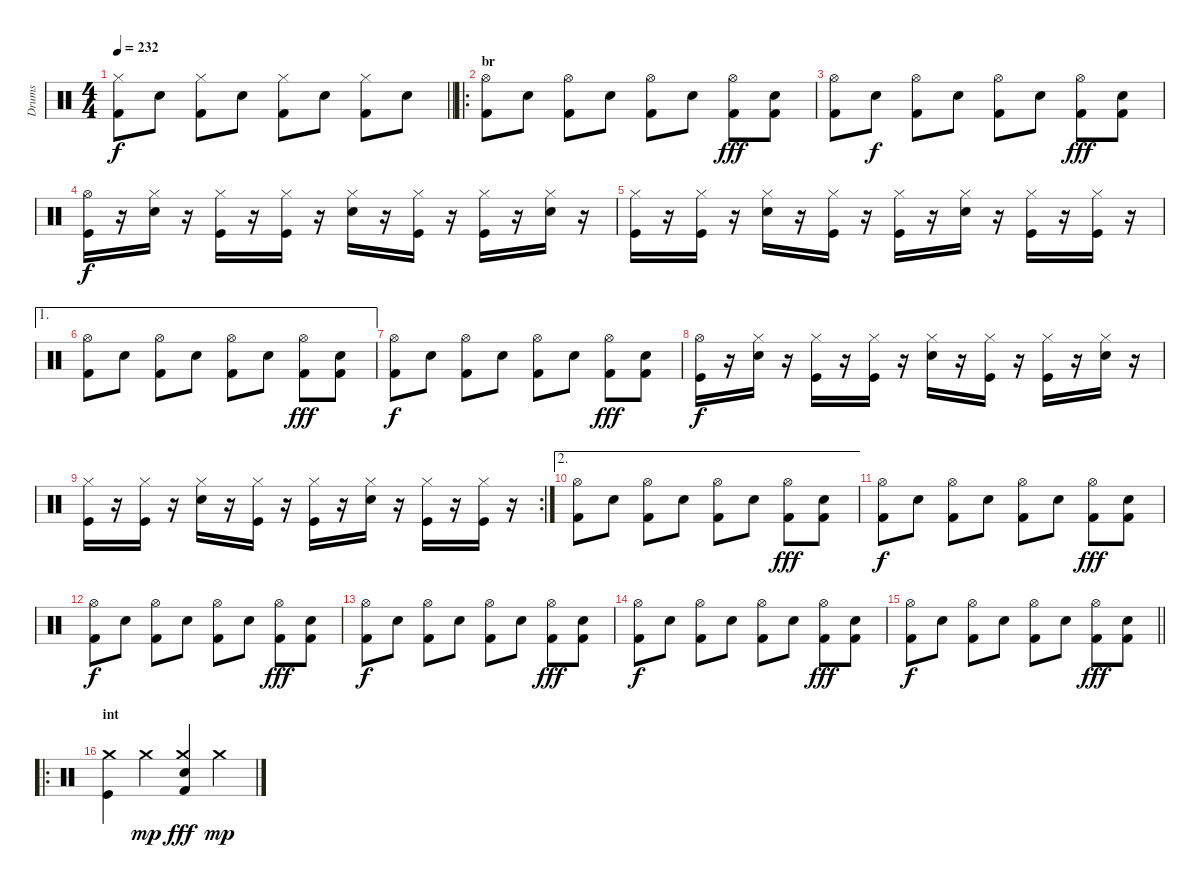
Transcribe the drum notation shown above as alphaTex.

\track ("Drums" "Drums") {instrument percussion}
\staff {score}
\articulation defaults
\ts (4 4)
\tempo 232
\clef neutral
\barLineRight lightlight
\ks c
("Hi-Hat (closed)" "Kick (hit) 2").8{dy f} "Electric Snare (hit)".8 ("Hi-Hat (closed)" "Kick (hit) 2").8 "Electric Snare (hit)".8 ("Hi-Hat (closed)" "Kick (hit) 2").8 "Electric Snare (hit)".8 ("Hi-Hat (closed)" "Kick (hit) 2").8 "Electric Snare (hit)".8 |
\ro
\section ("" "br")
("Hi-Hat (open)" "Kick (hit) 2").8 "Electric Snare (hit)".8 ("Hi-Hat (open)" "Kick (hit) 2").8 "Electric Snare (hit)".8 ("Hi-Hat (open)" "Kick (hit) 2").8 "Electric Snare (hit)".8 ("Hi-Hat (open)" "Kick (hit) 2").8{dy fff} ("Electric Snare (hit)" "Kick (hit) 2").8 |
("Hi-Hat (open)" "Kick (hit) 2").8 "Electric Snare (hit)".8{dy f} ("Hi-Hat (open)" "Kick (hit) 2").8 "Electric Snare (hit)".8 ("Hi-Hat (open)" "Kick (hit) 2").8 "Electric Snare (hit)".8 ("Hi-Hat (open)" "Kick (hit) 2").8{dy fff} ("Electric Snare (hit)" "Kick (hit) 2").8 |
("Hi-Hat (open)" "Kick (hit)").16{dy f} r.16 ("Hi-Hat (closed)" "Electric Snare (hit)").16 r.16 ("Hi-Hat (closed)" "Kick (hit)").16 r.16 ("Hi-Hat (closed)" "Kick (hit)").16 r.16 ("Hi-Hat (closed)" "Electric Snare (hit)").16 r.16 ("Hi-Hat (closed)" "Kick (hit)").16 r.16 ("Hi-Hat (closed)" "Kick (hit)").16 r.16 ("Hi-Hat (closed)" "Electric Snare (hit)").16 r.16 |
("Hi-Hat (closed)" "Kick (hit)").16 r.16 ("Hi-Hat (closed)" "Kick (hit)").16 r.16 ("Hi-Hat (closed)" "Electric Snare (hit)").16 r.16 ("Hi-Hat (closed)" "Kick (hit)").16 r.16 ("Hi-Hat (closed)" "Kick (hit)").16 r.16 ("Hi-Hat (closed)" "Electric Snare (hit)").16 r.16 ("Hi-Hat (closed)" "Kick (hit)").16 r.16 ("Hi-Hat (closed)" "Kick (hit)").16 r.16 |
\ae 1
("Hi-Hat (open)" "Kick (hit) 2").8 "Electric Snare (hit)".8 ("Hi-Hat (open)" "Kick (hit) 2").8 "Electric Snare (hit)".8 ("Hi-Hat (open)" "Kick (hit) 2").8 "Electric Snare (hit)".8 ("Hi-Hat (open)" "Kick (hit) 2").8{dy fff} ("Electric Snare (hit)" "Kick (hit) 2").8 |
("Hi-Hat (open)" "Kick (hit) 2").8{dy f} "Electric Snare (hit)".8 ("Hi-Hat (open)" "Kick (hit) 2").8 "Electric Snare (hit)".8 ("Hi-Hat (open)" "Kick (hit) 2").8 "Electric Snare (hit)".8 ("Hi-Hat (open)" "Kick (hit) 2").8{dy fff} ("Electric Snare (hit)" "Kick (hit) 2").8 |
("Hi-Hat (open)" "Kick (hit)").16{dy f} r.16 ("Hi-Hat (closed)" "Electric Snare (hit)").16 r.16 ("Hi-Hat (closed)" "Kick (hit)").16 r.16 ("Hi-Hat (closed)" "Kick (hit)").16 r.16 ("Hi-Hat (closed)" "Electric Snare (hit)").16 r.16 ("Hi-Hat (closed)" "Kick (hit)").16 r.16 ("Hi-Hat (closed)" "Kick (hit)").16 r.16 ("Hi-Hat (closed)" "Electric Snare (hit)").16 r.16 |
\rc 2
("Hi-Hat (closed)" "Kick (hit)").16 r.16 ("Hi-Hat (closed)" "Kick (hit)").16 r.16 ("Hi-Hat (closed)" "Electric Snare (hit)").16 r.16 ("Hi-Hat (closed)" "Kick (hit)").16 r.16 ("Hi-Hat (closed)" "Kick (hit)").16 r.16 ("Hi-Hat (closed)" "Electric Snare (hit)").16 r.16 ("Hi-Hat (closed)" "Kick (hit)").16 r.16 ("Hi-Hat (closed)" "Kick (hit)").16 r.16 |
\ae 2
("Hi-Hat (open)" "Kick (hit) 2").8 "Electric Snare (hit)".8 ("Hi-Hat (open)" "Kick (hit) 2").8 "Electric Snare (hit)".8 ("Hi-Hat (open)" "Kick (hit) 2").8 "Electric Snare (hit)".8 ("Hi-Hat (open)" "Kick (hit) 2").8{dy fff} ("Electric Snare (hit)" "Kick (hit) 2").8 |
("Hi-Hat (open)" "Kick (hit) 2").8{dy f} "Electric Snare (hit)".8 ("Hi-Hat (open)" "Kick (hit) 2").8 "Electric Snare (hit)".8 ("Hi-Hat (open)" "Kick (hit) 2").8 "Electric Snare (hit)".8 ("Hi-Hat (open)" "Kick (hit) 2").8{dy fff} ("Electric Snare (hit)" "Kick (hit) 2").8 |
("Hi-Hat (open)" "Kick (hit) 2").8{dy f} "Electric Snare (hit)".8 ("Hi-Hat (open)" "Kick (hit) 2").8 "Electric Snare (hit)".8 ("Hi-Hat (open)" "Kick (hit) 2").8 "Electric Snare (hit)".8 ("Hi-Hat (open)" "Kick (hit) 2").8{dy fff} ("Electric Snare (hit)" "Kick (hit) 2").8 |
("Hi-Hat (open)" "Kick (hit) 2").8{dy f} "Electric Snare (hit)".8 ("Hi-Hat (open)" "Kick (hit) 2").8 "Electric Snare (hit)".8 ("Hi-Hat (open)" "Kick (hit) 2").8 "Electric Snare (hit)".8 ("Hi-Hat (open)" "Kick (hit) 2").8{dy fff} ("Electric Snare (hit)" "Kick (hit) 2").8 |
("Hi-Hat (open)" "Kick (hit) 2").8{dy f} "Electric Snare (hit)".8 ("Hi-Hat (open)" "Kick (hit) 2").8 "Electric Snare (hit)".8 ("Hi-Hat (open)" "Kick (hit) 2").8 "Electric Snare (hit)".8 ("Hi-Hat (open)" "Kick (hit) 2").8{dy fff} ("Electric Snare (hit)" "Kick (hit) 2").8 |
\barLineRight lightlight
("Hi-Hat (open)" "Kick (hit) 2").8{dy f} "Electric Snare (hit)".8 ("Hi-Hat (open)" "Kick (hit) 2").8 "Electric Snare (hit)".8 ("Hi-Hat (open)" "Kick (hit) 2").8 "Electric Snare (hit)".8 ("Hi-Hat (open)" "Kick (hit) 2").8{dy fff} ("Electric Snare (hit)" "Kick (hit) 2").8 |
\ro
\section ("" "int")
("Crash medium (hit)" "Kick (hit)").4 "Crash medium (hit)".4{dy mp} ("Crash medium (hit)" "Snare (hit) 2" "Kick (hit) 2").4{dy fff} "Crash medium (hit)".4{dy mp}
